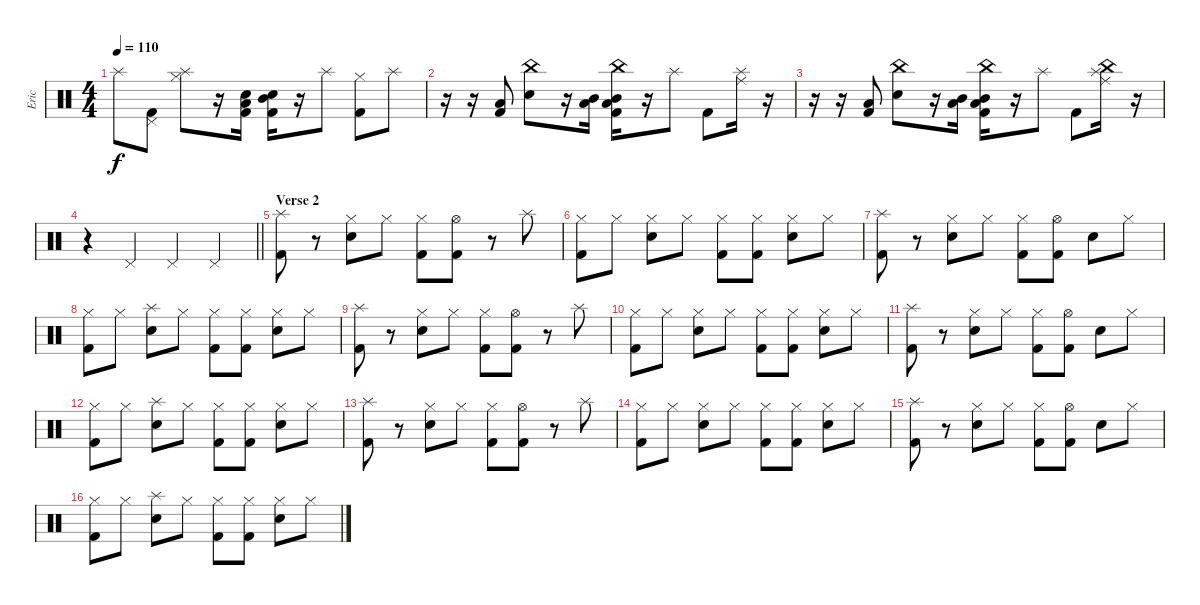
\track ("Eric" "Eric") {instrument percussion}
\staff {score}
\articulation defaults
\ts (4 4)
\tempo 110
\clef neutral
\ks c "Splash (hit)".8{dy f}
("Pedal Hi-Hat (hit)" "Kick (hit) 2").8 ("Hi-Hat (closed)" "Splash (hit)").8 r.16 ("Low Floor Tom (hit)" "Snare (hit) 2" "Kick (hit) 2").16 ("Mid Tom (hit)" "Snare (hit) 2" "Kick (hit) 2").16 r.16 "Splash (hit)".8 ("Hi-Hat (closed)" "Kick (hit) 2").8 "Splash (hit)".8 |
r.16 r.16 ("Low Floor Tom (hit)" "Kick (hit) 2").8 ("China (hit)" "Snare (hit) 2").8 r.16 ("Mid Tom (hit)" "Low Floor Tom (hit)").16 ("China (hit)" "Low Floor Tom (hit)" "Mid Tom (hit)" "Kick (hit) 2").16 r.16 "Splash (hit)".8 "Kick (hit) 2".8 ("Ride (middle)" "Splash (hit)").16 r.16 |
r.16 r.16 ("Low Floor Tom (hit)" "Kick (hit) 2").8 ("China (hit)" "Snare (hit) 2").8 r.16 ("Mid Tom (hit)" "Low Floor Tom (hit)").16 ("China (hit)" "Low Floor Tom (hit)" "Mid Tom (hit)" "Kick (hit) 2").16 r.16 "Splash (hit)".8 "Kick (hit) 2".8 ("Ride (middle)" "Splash (hit)" "China (hit)").16 r.16 |
\barLineRight lightlight
r.4 "Pedal Hi-Hat (hit)".4 "Pedal Hi-Hat (hit)".4 "Pedal Hi-Hat (hit)".4 |
\section ("" "Verse 2")
("Splash (hit)" "Kick (hit) 2").8 r.8 ("Hi-Hat (closed)" "Snare (hit) 2").8 "Hi-Hat (closed)".8 ("Hi-Hat (closed)" "Kick (hit) 2").8 ("Hi-Hat (open)" "Kick (hit) 2").8 r.8 "Splash (hit)".8 |
("Hi-Hat (closed)" "Kick (hit) 2").8 "Hi-Hat (closed)".8 ("Hi-Hat (closed)" "Snare (hit) 2").8 "Hi-Hat (closed)".8 ("Hi-Hat (closed)" "Kick (hit) 2").8 ("Hi-Hat (closed)" "Kick (hit) 2").8 ("Hi-Hat (closed)" "Snare (hit) 2").8 "Hi-Hat (closed)".8 |
("Splash (hit)" "Kick (hit) 2").8 r.8 ("Hi-Hat (closed)" "Snare (hit) 2").8 "Hi-Hat (closed)".8 ("Hi-Hat (closed)" "Kick (hit) 2").8 ("Hi-Hat (open)" "Kick (hit) 2").8 "Snare (hit) 2".8 "Hi-Hat (closed)".8 |
("Hi-Hat (closed)" "Kick (hit) 2").8 "Hi-Hat (closed)".8 ("Splash (hit)" "Snare (hit) 2").8 "Hi-Hat (closed)".8 ("Hi-Hat (closed)" "Kick (hit) 2").8 ("Hi-Hat (closed)" "Kick (hit) 2").8 ("Hi-Hat (closed)" "Snare (hit) 2").8 "Hi-Hat (closed)".8 |
("Splash (hit)" "Kick (hit) 2").8 r.8 ("Hi-Hat (closed)" "Snare (hit) 2").8 "Hi-Hat (closed)".8 ("Hi-Hat (closed)" "Kick (hit) 2").8 ("Hi-Hat (open)" "Kick (hit) 2").8 r.8 "Splash (hit)".8 |
("Hi-Hat (closed)" "Kick (hit) 2").8 "Hi-Hat (closed)".8 ("Hi-Hat (closed)" "Snare (hit) 2").8 "Hi-Hat (closed)".8 ("Hi-Hat (closed)" "Kick (hit) 2").8 ("Hi-Hat (closed)" "Kick (hit) 2").8 ("Hi-Hat (closed)" "Snare (hit) 2").8 "Hi-Hat (closed)".8 |
("Splash (hit)" "Kick (hit) 2").8 r.8 ("Hi-Hat (closed)" "Snare (hit) 2").8 "Hi-Hat (closed)".8 ("Hi-Hat (closed)" "Kick (hit) 2").8 ("Hi-Hat (open)" "Kick (hit) 2").8 "Snare (hit) 2".8 "Hi-Hat (closed)".8 |
("Hi-Hat (closed)" "Kick (hit) 2").8 "Hi-Hat (closed)".8 ("Splash (hit)" "Snare (hit) 2").8 "Hi-Hat (closed)".8 ("Hi-Hat (closed)" "Kick (hit) 2").8 ("Hi-Hat (closed)" "Kick (hit) 2").8 ("Hi-Hat (closed)" "Snare (hit) 2").8 "Hi-Hat (closed)".8 |
("Splash (hit)" "Kick (hit) 2").8 r.8 ("Hi-Hat (closed)" "Snare (hit) 2").8 "Hi-Hat (closed)".8 ("Hi-Hat (closed)" "Kick (hit) 2").8 ("Hi-Hat (open)" "Kick (hit) 2").8 r.8 "Splash (hit)".8 |
("Hi-Hat (closed)" "Kick (hit) 2").8 "Hi-Hat (closed)".8 ("Hi-Hat (closed)" "Snare (hit) 2").8 "Hi-Hat (closed)".8 ("Hi-Hat (closed)" "Kick (hit) 2").8 ("Hi-Hat (closed)" "Kick (hit) 2").8 ("Hi-Hat (closed)" "Snare (hit) 2").8 "Hi-Hat (closed)".8 |
("Splash (hit)" "Kick (hit) 2").8 r.8 ("Hi-Hat (closed)" "Snare (hit) 2").8 "Hi-Hat (closed)".8 ("Hi-Hat (closed)" "Kick (hit) 2").8 ("Hi-Hat (open)" "Kick (hit) 2").8 "Snare (hit) 2".8 "Hi-Hat (closed)".8 |
("Hi-Hat (closed)" "Kick (hit) 2").8 "Hi-Hat (closed)".8 ("Splash (hit)" "Snare (hit) 2").8 "Hi-Hat (closed)".8 ("Hi-Hat (closed)" "Kick (hit) 2").8 ("Hi-Hat (closed)" "Kick (hit) 2").8 ("Hi-Hat (closed)" "Snare (hit) 2").8 "Hi-Hat (closed)".8
